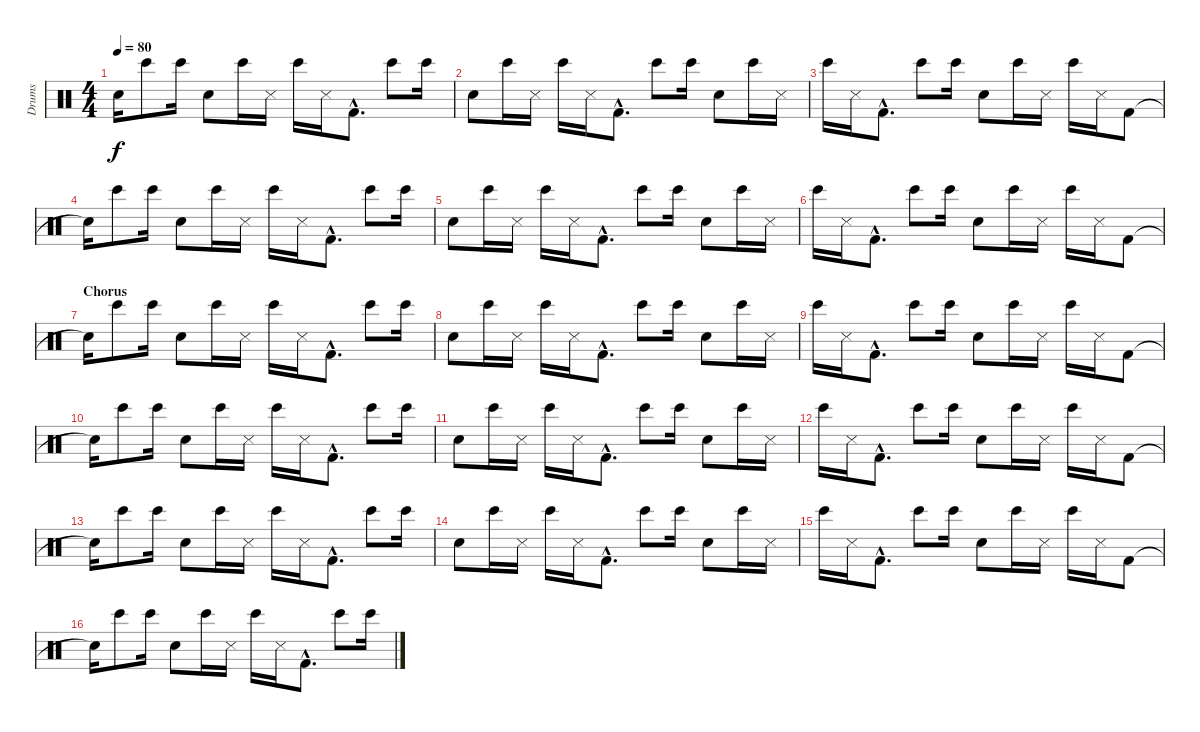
\track ("Drums" "Drums") {instrument percussion}
\staff {score}
\articulation defaults
\ts (4 4)
\tempo 80
\clef neutral
\ks c "Snare (hit)"{t}.16{dy f} "Bongo High (hit)".8 "Bongo High (hit)".16 "Electric Snare (hit)".8 "Bongo High (hit)".16 "Snare (side stick) 3".16 "Bongo High (hit)".16 "Snare (side stick) 3".16 "Kick (hit) 2"{hac}.8{d} "Bongo High (hit)".8 "Bongo High (hit)".16
|
"Electric Snare (hit)".8 "Bongo High (hit)".16 "Snare (side stick) 3".16 "Bongo High (hit)".16 "Snare (side stick) 3".16 "Kick (hit) 2"{hac}.8{d} "Bongo High (hit)".8 "Bongo High (hit)".16 "Electric Snare (hit)".8 "Bongo High (hit)".16 "Snare (side stick) 3".16 |
"Bongo High (hit)".16 "Snare (side stick) 3".16 "Kick (hit) 2"{hac}.8{d} "Bongo High (hit)".8 "Bongo High (hit)".16 "Electric Snare (hit)".8 "Bongo High (hit)".16 "Snare (side stick) 3".16 "Bongo High (hit)".16 "Snare (side stick) 3".16 "Kick (hit) 2".8 |
"Snare (hit)"{t}.16 "Bongo High (hit)".8 "Bongo High (hit)".16 "Electric Snare (hit)".8 "Bongo High (hit)".16 "Snare (side stick) 3".16 "Bongo High (hit)".16 "Snare (side stick) 3".16 "Kick (hit) 2"{hac}.8{d} "Bongo High (hit)".8 "Bongo High (hit)".16 |
"Electric Snare (hit)".8 "Bongo High (hit)".16 "Snare (side stick) 3".16 "Bongo High (hit)".16 "Snare (side stick) 3".16 "Kick (hit) 2"{hac}.8{d} "Bongo High (hit)".8 "Bongo High (hit)".16 "Electric Snare (hit)".8 "Bongo High (hit)".16 "Snare (side stick) 3".16 |
"Bongo High (hit)".16 "Snare (side stick) 3".16 "Kick (hit) 2"{hac}.8{d} "Bongo High (hit)".8 "Bongo High (hit)".16 "Electric Snare (hit)".8 "Bongo High (hit)".16 "Snare (side stick) 3".16 "Bongo High (hit)".16 "Snare (side stick) 3".16 "Kick (hit) 2".8 |
\section ("" "Chorus")
"Snare (hit)"{t}.16 "Bongo High (hit)".8 "Bongo High (hit)".16 "Electric Snare (hit)".8 "Bongo High (hit)".16 "Snare (side stick) 3".16 "Bongo High (hit)".16 "Snare (side stick) 3".16 "Kick (hit) 2"{hac}.8{d} "Bongo High (hit)".8 "Bongo High (hit)".16 |
"Electric Snare (hit)".8 "Bongo High (hit)".16 "Snare (side stick) 3".16 "Bongo High (hit)".16 "Snare (side stick) 3".16 "Kick (hit) 2"{hac}.8{d} "Bongo High (hit)".8 "Bongo High (hit)".16 "Electric Snare (hit)".8 "Bongo High (hit)".16 "Snare (side stick) 3".16 |
"Bongo High (hit)".16 "Snare (side stick) 3".16 "Kick (hit) 2"{hac}.8{d} "Bongo High (hit)".8 "Bongo High (hit)".16 "Electric Snare (hit)".8 "Bongo High (hit)".16 "Snare (side stick) 3".16 "Bongo High (hit)".16 "Snare (side stick) 3".16 "Kick (hit) 2".8 |
"Snare (hit)"{t}.16 "Bongo High (hit)".8 "Bongo High (hit)".16 "Electric Snare (hit)".8 "Bongo High (hit)".16 "Snare (side stick) 3".16 "Bongo High (hit)".16 "Snare (side stick) 3".16 "Kick (hit) 2"{hac}.8{d} "Bongo High (hit)".8 "Bongo High (hit)".16 |
"Electric Snare (hit)".8 "Bongo High (hit)".16 "Snare (side stick) 3".16 "Bongo High (hit)".16 "Snare (side stick) 3".16 "Kick (hit) 2"{hac}.8{d} "Bongo High (hit)".8 "Bongo High (hit)".16 "Electric Snare (hit)".8 "Bongo High (hit)".16 "Snare (side stick) 3".16 |
"Bongo High (hit)".16 "Snare (side stick) 3".16 "Kick (hit) 2"{hac}.8{d} "Bongo High (hit)".8 "Bongo High (hit)".16 "Electric Snare (hit)".8 "Bongo High (hit)".16 "Snare (side stick) 3".16 "Bongo High (hit)".16 "Snare (side stick) 3".16 "Kick (hit) 2".8 |
"Snare (hit)"{t}.16 "Bongo High (hit)".8 "Bongo High (hit)".16 "Electric Snare (hit)".8 "Bongo High (hit)".16 "Snare (side stick) 3".16 "Bongo High (hit)".16 "Snare (side stick) 3".16 "Kick (hit) 2"{hac}.8{d} "Bongo High (hit)".8 "Bongo High (hit)".16 |
"Electric Snare (hit)".8 "Bongo High (hit)".16 "Snare (side stick) 3".16 "Bongo High (hit)".16 "Snare (side stick) 3".16 "Kick (hit) 2"{hac}.8{d} "Bongo High (hit)".8 "Bongo High (hit)".16 "Electric Snare (hit)".8 "Bongo High (hit)".16 "Snare (side stick) 3".16 |
"Bongo High (hit)".16 "Snare (side stick) 3".16 "Kick (hit) 2"{hac}.8{d} "Bongo High (hit)".8 "Bongo High (hit)".16 "Electric Snare (hit)".8 "Bongo High (hit)".16 "Snare (side stick) 3".16 "Bongo High (hit)".16 "Snare (side stick) 3".16 "Kick (hit) 2".8 |
"Snare (hit)"{t}.16 "Bongo High (hit)".8 "Bongo High (hit)".16 "Electric Snare (hit)".8 "Bongo High (hit)".16 "Snare (side stick) 3".16 "Bongo High (hit)".16 "Snare (side stick) 3".16 "Kick (hit) 2"{hac}.8{d} "Bongo High (hit)".8 "Bongo High (hit)".16
